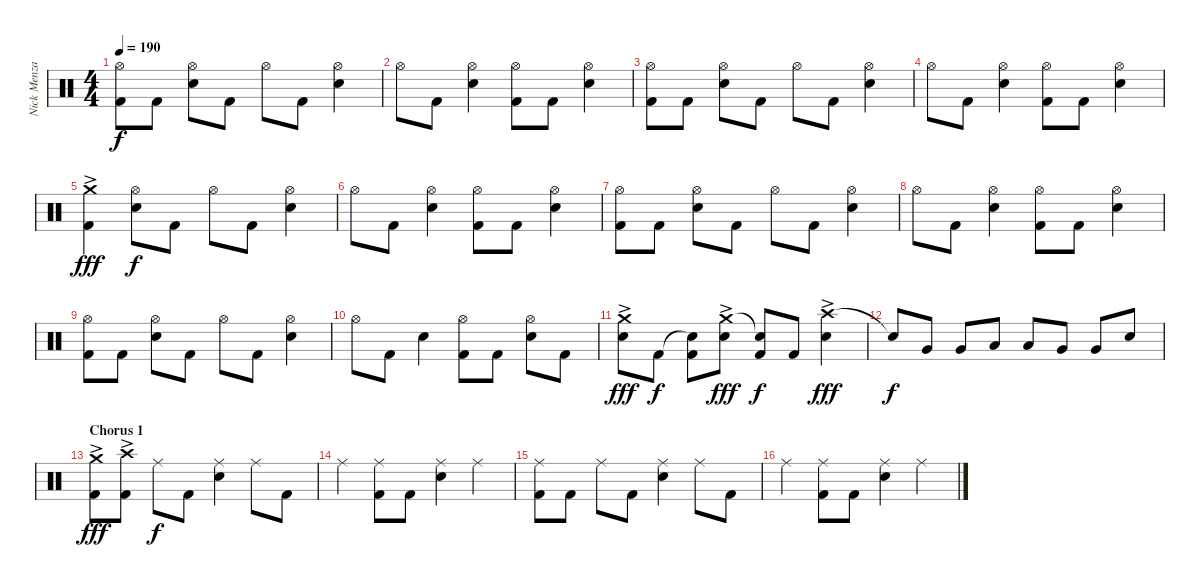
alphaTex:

\track ("Nick Menza" "Nick Menza") {instrument percussion}
\staff {score}
\articulation defaults
\ts (4 4)
\tempo 190
\clef neutral
\ks c
("Hi-Hat (open)" "Kick (hit) 2").8{dy f} "Kick (hit) 2".8 ("Hi-Hat (open)" "Snare (hit) 2").8 "Kick (hit) 2".8 "Hi-Hat (open)".8 "Kick (hit) 2".8 ("Hi-Hat (open)" "Snare (hit) 2").4 |
"Hi-Hat (open)".8 "Kick (hit) 2".8 ("Hi-Hat (open)" "Snare (hit) 2").4 ("Hi-Hat (open)" "Kick (hit) 2").8 "Kick (hit) 2".8 ("Hi-Hat (open)" "Snare (hit) 2").4 |
("Hi-Hat (open)" "Kick (hit) 2").8 "Kick (hit) 2".8 ("Hi-Hat (open)" "Snare (hit) 2").8 "Kick (hit) 2".8 "Hi-Hat (open)".8 "Kick (hit) 2".8 ("Hi-Hat (open)" "Snare (hit) 2").4 |
"Hi-Hat (open)".8 "Kick (hit) 2".8 ("Hi-Hat (open)" "Snare (hit) 2").4 ("Hi-Hat (open)" "Kick (hit) 2").8 "Kick (hit) 2".8 ("Hi-Hat (open)" "Snare (hit) 2").4 |
("Crash medium (hit)"{ac} "Kick (hit) 2").4{dy fff} ("Hi-Hat (open)" "Snare (hit) 2").8{dy f} "Kick (hit) 2".8 "Hi-Hat (open)".8 "Kick (hit) 2".8 ("Hi-Hat (open)" "Snare (hit) 2").4 |
"Hi-Hat (open)".8 "Kick (hit) 2".8 ("Hi-Hat (open)" "Snare (hit) 2").4 ("Hi-Hat (open)" "Kick (hit) 2").8 "Kick (hit) 2".8 ("Hi-Hat (open)" "Snare (hit) 2").4 |
("Hi-Hat (open)" "Kick (hit) 2").8 "Kick (hit) 2".8 ("Hi-Hat (open)" "Snare (hit) 2").8 "Kick (hit) 2".8 "Hi-Hat (open)".8 "Kick (hit) 2".8 ("Hi-Hat (open)" "Snare (hit) 2").4 |
"Hi-Hat (open)".8 "Kick (hit) 2".8 ("Hi-Hat (open)" "Snare (hit) 2").4 ("Hi-Hat (open)" "Kick (hit) 2").8 "Kick (hit) 2".8 ("Hi-Hat (open)" "Snare (hit) 2").4 |
("Hi-Hat (open)" "Kick (hit) 2").8 "Kick (hit) 2".8 ("Hi-Hat (open)" "Snare (hit) 2").8 "Kick (hit) 2".8 "Hi-Hat (open)".8 "Kick (hit) 2".8 ("Hi-Hat (open)" "Snare (hit) 2").4 |
"Hi-Hat (open)".8 "Kick (hit) 2".8 "Snare (hit) 2".4 ("Hi-Hat (open)" "Kick (hit) 2").8 "Kick (hit) 2".8 ("Hi-Hat (open)" "Snare (hit) 2").8 "Kick (hit) 2".8 |
("Crash medium (hit)"{ac} "Snare (hit) 2").8{dy fff} "Kick (hit) 2".8{dy f} ("Snare (hit)"{t} "Kick (hit) 2").8 ("Crash medium (hit)"{ac} "Snare (hit) 2").8{dy fff} ("Snare (hit)"{t} "Kick (hit) 2").8{dy f} "Kick (hit) 2".8 ("Crash high (hit)"{ac} "Snare (hit) 2").4{dy fff} |
"Snare (hit)"{t}.8{dy f} "Very Low Tom (hit)".8 "Very Low Tom (hit)".8 "Low Tom (hit)".8 "Low Tom (hit)".8 "Very Low Tom (hit)".8 "Very Low Tom (hit)".8 "Snare (hit) 2".8 |
\section ("" "Chorus 1")
("Crash medium (hit)"{ac} "Kick (hit) 2").8{dy fff} ("Crash high (hit)"{ac} "Kick (hit) 2").8 "Ride (middle)".8{dy f} "Kick (hit) 2".8 ("Ride (middle)" "Snare (hit) 2").4 "Ride (middle)".8 "Kick (hit) 2".8 |
"Ride (middle)".4 ("Ride (middle)" "Kick (hit) 2").8 "Kick (hit) 2".8 ("Ride (middle)" "Snare (hit) 2").4 "Ride (middle)".4 |
("Ride (middle)" "Kick (hit) 2").8 "Kick (hit) 2".8 "Ride (middle)".8 "Kick (hit) 2".8 ("Ride (middle)" "Snare (hit) 2").4 "Ride (middle)".8 "Kick (hit) 2".8 |
"Ride (middle)".4 ("Ride (middle)" "Kick (hit) 2").8 "Kick (hit) 2".8 ("Ride (middle)" "Snare (hit) 2").4 "Ride (middle)".4
